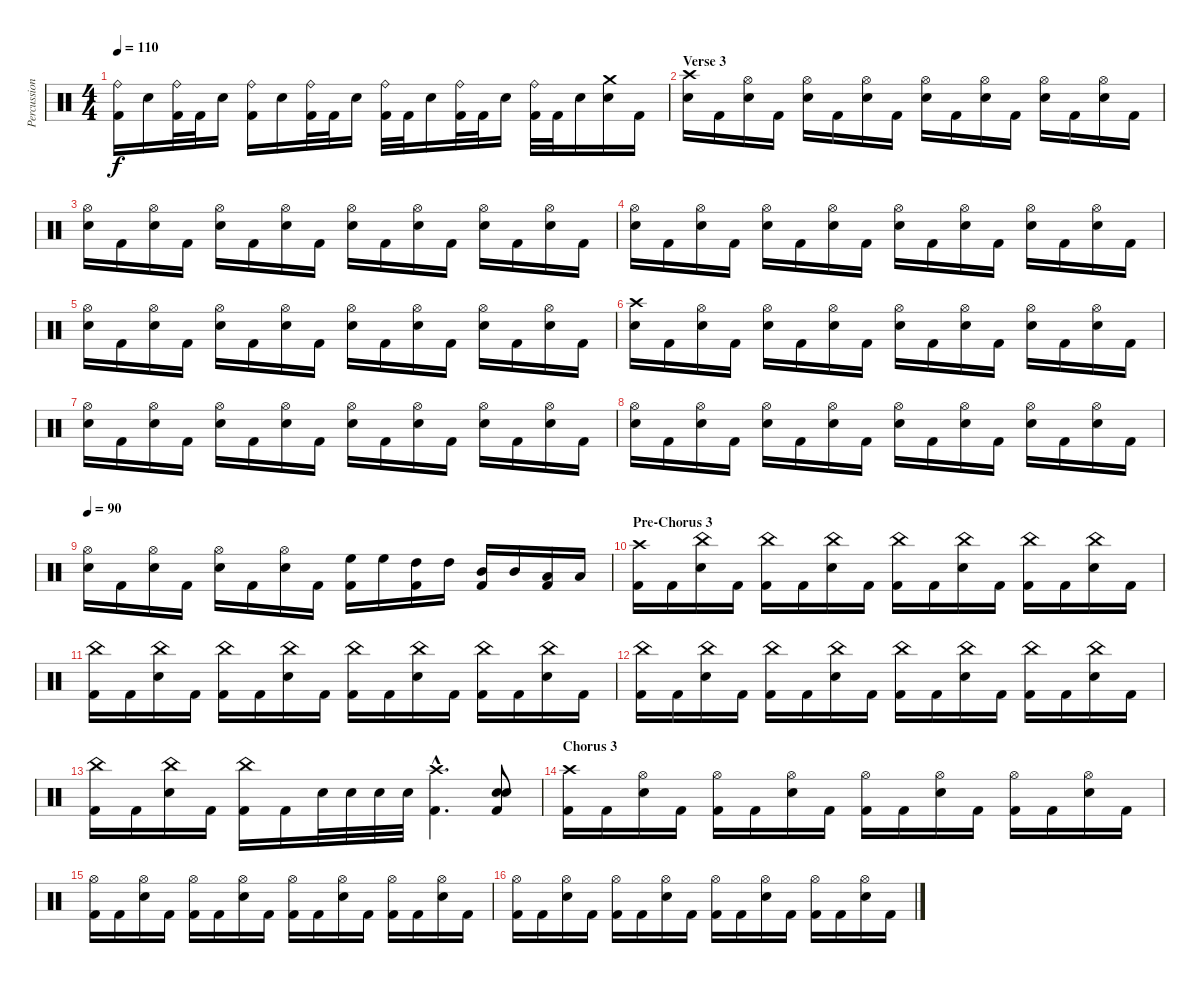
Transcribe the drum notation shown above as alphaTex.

\track ("Percussion" "Percussion") {instrument percussion}
\staff {score}
\articulation defaults
\ts (4 4)
\tempo 110
\clef neutral
\ks c
("Kick (hit) 2" "Ride (bell)").16{dy f} "Electric Snare (hit)".16 ("Kick (hit) 2" "Ride (bell)").32 "Kick (hit) 2".32 "Electric Snare (hit)".16 ("Kick (hit) 2" "Ride (bell)").16 "Electric Snare (hit)".16 ("Kick (hit) 2" "Ride (bell)").32 "Kick (hit) 2".32 "Electric Snare (hit)".16 ("Kick (hit) 2" "Ride (bell)").32 "Kick (hit) 2".32 "Electric Snare (hit)".16 ("Kick (hit) 2" "Ride (bell)").32 "Kick (hit) 2".32 "Electric Snare (hit)".16 ("Kick (hit) 2" "Ride (bell)").32 "Kick (hit) 2".32 "Electric Snare (hit)".16 ("Electric Snare (hit)" "Crash medium (hit)").16 "Kick (hit) 2".16 |
\section ("" "Verse 3")
("Electric Snare (hit)" "Crash high (hit)").16 "Kick (hit) 2".16 ("Electric Snare (hit)" "Hi-Hat (open)").16 "Kick (hit) 2".16 ("Electric Snare (hit)" "Hi-Hat (open)").16 "Kick (hit) 2".16 ("Electric Snare (hit)" "Hi-Hat (open)").16 "Kick (hit) 2".16 ("Electric Snare (hit)" "Hi-Hat (open)").16 "Kick (hit) 2".16 ("Electric Snare (hit)" "Hi-Hat (open)").16 "Kick (hit) 2".16 ("Electric Snare (hit)" "Hi-Hat (open)").16 "Kick (hit) 2".16 ("Electric Snare (hit)" "Hi-Hat (open)").16 "Kick (hit) 2".16 |
("Electric Snare (hit)" "Hi-Hat (open)").16 "Kick (hit) 2".16 ("Electric Snare (hit)" "Hi-Hat (open)").16 "Kick (hit) 2".16 ("Electric Snare (hit)" "Hi-Hat (open)").16 "Kick (hit) 2".16 ("Electric Snare (hit)" "Hi-Hat (open)").16 "Kick (hit) 2".16 ("Electric Snare (hit)" "Hi-Hat (open)").16 "Kick (hit) 2".16 ("Electric Snare (hit)" "Hi-Hat (open)").16 "Kick (hit) 2".16 ("Electric Snare (hit)" "Hi-Hat (open)").16 "Kick (hit) 2".16 ("Electric Snare (hit)" "Hi-Hat (open)").16 "Kick (hit) 2".16 |
("Electric Snare (hit)" "Hi-Hat (open)").16 "Kick (hit) 2".16 ("Electric Snare (hit)" "Hi-Hat (open)").16 "Kick (hit) 2".16 ("Electric Snare (hit)" "Hi-Hat (open)").16 "Kick (hit) 2".16 ("Electric Snare (hit)" "Hi-Hat (open)").16 "Kick (hit) 2".16 ("Electric Snare (hit)" "Hi-Hat (open)").16 "Kick (hit) 2".16 ("Electric Snare (hit)" "Hi-Hat (open)").16 "Kick (hit) 2".16 ("Electric Snare (hit)" "Hi-Hat (open)").16 "Kick (hit) 2".16 ("Electric Snare (hit)" "Hi-Hat (open)").16 "Kick (hit) 2".16 |
("Electric Snare (hit)" "Hi-Hat (open)").16 "Kick (hit) 2".16 ("Electric Snare (hit)" "Hi-Hat (open)").16 "Kick (hit) 2".16 ("Electric Snare (hit)" "Hi-Hat (open)").16 "Kick (hit) 2".16 ("Electric Snare (hit)" "Hi-Hat (open)").16 "Kick (hit) 2".16 ("Electric Snare (hit)" "Hi-Hat (open)").16 "Kick (hit) 2".16 ("Electric Snare (hit)" "Hi-Hat (open)").16 "Kick (hit) 2".16 ("Electric Snare (hit)" "Hi-Hat (open)").16 "Kick (hit) 2".16 ("Electric Snare (hit)" "Hi-Hat (open)").16 "Kick (hit) 2".16 |
("Electric Snare (hit)" "Crash high (hit)").16 "Kick (hit) 2".16 ("Electric Snare (hit)" "Hi-Hat (open)").16 "Kick (hit) 2".16 ("Electric Snare (hit)" "Hi-Hat (open)").16 "Kick (hit) 2".16 ("Electric Snare (hit)" "Hi-Hat (open)").16 "Kick (hit) 2".16 ("Electric Snare (hit)" "Hi-Hat (open)").16 "Kick (hit) 2".16 ("Electric Snare (hit)" "Hi-Hat (open)").16 "Kick (hit) 2".16 ("Electric Snare (hit)" "Hi-Hat (open)").16 "Kick (hit) 2".16 ("Electric Snare (hit)" "Hi-Hat (open)").16 "Kick (hit) 2".16 |
("Electric Snare (hit)" "Hi-Hat (open)").16 "Kick (hit) 2".16 ("Electric Snare (hit)" "Hi-Hat (open)").16 "Kick (hit) 2".16 ("Electric Snare (hit)" "Hi-Hat (open)").16 "Kick (hit) 2".16 ("Electric Snare (hit)" "Hi-Hat (open)").16 "Kick (hit) 2".16 ("Electric Snare (hit)" "Hi-Hat (open)").16 "Kick (hit) 2".16 ("Electric Snare (hit)" "Hi-Hat (open)").16 "Kick (hit) 2".16 ("Electric Snare (hit)" "Hi-Hat (open)").16 "Kick (hit) 2".16 ("Electric Snare (hit)" "Hi-Hat (open)").16 "Kick (hit) 2".16 |
("Electric Snare (hit)" "Hi-Hat (open)").16 "Kick (hit) 2".16 ("Electric Snare (hit)" "Hi-Hat (open)").16 "Kick (hit) 2".16 ("Electric Snare (hit)" "Hi-Hat (open)").16 "Kick (hit) 2".16 ("Electric Snare (hit)" "Hi-Hat (open)").16 "Kick (hit) 2".16 ("Electric Snare (hit)" "Hi-Hat (open)").16 "Kick (hit) 2".16 ("Electric Snare (hit)" "Hi-Hat (open)").16 "Kick (hit) 2".16 ("Electric Snare (hit)" "Hi-Hat (open)").16 "Kick (hit) 2".16 ("Electric Snare (hit)" "Hi-Hat (open)").16 "Kick (hit) 2".16 |
\tempo 90
("Electric Snare (hit)" "Hi-Hat (open)").16 "Kick (hit) 2".16 ("Electric Snare (hit)" "Hi-Hat (open)").16 "Kick (hit) 2".16 ("Electric Snare (hit)" "Hi-Hat (open)").16 "Kick (hit) 2".16 ("Electric Snare (hit)" "Hi-Hat (open)").16 "Kick (hit) 2".16 ("High Floor Tom (hit)" "Kick (hit) 2").16 "High Floor Tom (hit)".16 ("High Tom (hit)" "Kick (hit) 2").16 "High Tom (hit)".16 ("Mid Tom (hit)" "Kick (hit) 2").16 "Mid Tom (hit)".16 ("Low Tom (hit)" "Kick (hit) 2").16 "Low Tom (hit)".16 |
\section ("" "Pre-Chorus 3")
("Kick (hit) 2" "Crash high (hit)").16 "Kick (hit) 2".16 ("Electric Snare (hit)" "China (hit)").16 "Kick (hit) 2".16 ("Kick (hit) 2" "China (hit)").16 "Kick (hit) 2".16 ("Electric Snare (hit)" "China (hit)").16 "Kick (hit) 2".16 ("Kick (hit) 2" "China (hit)").16 "Kick (hit) 2".16 ("Electric Snare (hit)" "China (hit)").16 "Kick (hit) 2".16 ("Kick (hit) 2" "China (hit)").16 "Kick (hit) 2".16 ("Electric Snare (hit)" "China (hit)").16 "Kick (hit) 2".16 |
("Kick (hit) 2" "China (hit)").16 "Kick (hit) 2".16 ("Electric Snare (hit)" "China (hit)").16 "Kick (hit) 2".16 ("Kick (hit) 2" "China (hit)").16 "Kick (hit) 2".16 ("Electric Snare (hit)" "China (hit)").16 "Kick (hit) 2".16 ("Kick (hit) 2" "China (hit)").16 "Kick (hit) 2".16 ("Electric Snare (hit)" "China (hit)").16 "Kick (hit) 2".16 ("Kick (hit) 2" "China (hit)").16 "Kick (hit) 2".16 ("Electric Snare (hit)" "China (hit)").16 "Kick (hit) 2".16 |
("Kick (hit) 2" "China (hit)").16 "Kick (hit) 2".16 ("Electric Snare (hit)" "China (hit)").16 "Kick (hit) 2".16 ("Kick (hit) 2" "China (hit)").16 "Kick (hit) 2".16 ("Electric Snare (hit)" "China (hit)").16 "Kick (hit) 2".16 ("Kick (hit) 2" "China (hit)").16 "Kick (hit) 2".16 ("Electric Snare (hit)" "China (hit)").16 "Kick (hit) 2".16 ("Kick (hit) 2" "China (hit)").16 "Kick (hit) 2".16 ("Electric Snare (hit)" "China (hit)").16 "Kick (hit) 2".16 |
("Kick (hit) 2" "China (hit)").16 "Kick (hit) 2".16 ("Electric Snare (hit)" "China (hit)").16 "Kick (hit) 2".16 ("Kick (hit) 2" "China (hit)").16 "Kick (hit) 2".16 "Electric Snare (hit)".32 "Electric Snare (hit)".32 "Electric Snare (hit)".32 "Electric Snare (hit)".32 ("Kick (hit) 2"{hac} "Crash high (hit)"{hac}).4{d} ("Snare (hit) 2" "Electric Snare (hit)" "Kick (hit) 2").8 |
\section ("" "Chorus 3")
("Kick (hit) 2" "Crash high (hit)").16 "Kick (hit) 2".16 ("Electric Snare (hit)" "Hi-Hat (open)").16 "Kick (hit) 2".16 ("Kick (hit) 2" "Hi-Hat (open)").16 "Kick (hit) 2".16 ("Electric Snare (hit)" "Hi-Hat (open)").16 "Kick (hit) 2".16 ("Kick (hit) 2" "Hi-Hat (open)").16 "Kick (hit) 2".16 ("Electric Snare (hit)" "Hi-Hat (open)").16 "Kick (hit) 2".16 ("Kick (hit) 2" "Hi-Hat (open)").16 "Kick (hit) 2".16 ("Electric Snare (hit)" "Hi-Hat (open)").16 "Kick (hit) 2".16 |
("Kick (hit) 2" "Hi-Hat (open)").16 "Kick (hit) 2".16 ("Electric Snare (hit)" "Hi-Hat (open)").16 "Kick (hit) 2".16 ("Kick (hit) 2" "Hi-Hat (open)").16 "Kick (hit) 2".16 ("Electric Snare (hit)" "Hi-Hat (open)").16 "Kick (hit) 2".16 ("Kick (hit) 2" "Hi-Hat (open)").16 "Kick (hit) 2".16 ("Electric Snare (hit)" "Hi-Hat (open)").16 "Kick (hit) 2".16 ("Kick (hit) 2" "Hi-Hat (open)").16 "Kick (hit) 2".16 ("Electric Snare (hit)" "Hi-Hat (open)").16 "Kick (hit) 2".16 |
("Kick (hit) 2" "Hi-Hat (open)").16 "Kick (hit) 2".16 ("Electric Snare (hit)" "Hi-Hat (open)").16 "Kick (hit) 2".16 ("Kick (hit) 2" "Hi-Hat (open)").16 "Kick (hit) 2".16 ("Electric Snare (hit)" "Hi-Hat (open)").16 "Kick (hit) 2".16 ("Kick (hit) 2" "Hi-Hat (open)").16 "Kick (hit) 2".16 ("Electric Snare (hit)" "Hi-Hat (open)").16 "Kick (hit) 2".16 ("Kick (hit) 2" "Hi-Hat (open)").16 "Kick (hit) 2".16 ("Electric Snare (hit)" "Hi-Hat (open)").16 "Kick (hit) 2".16
